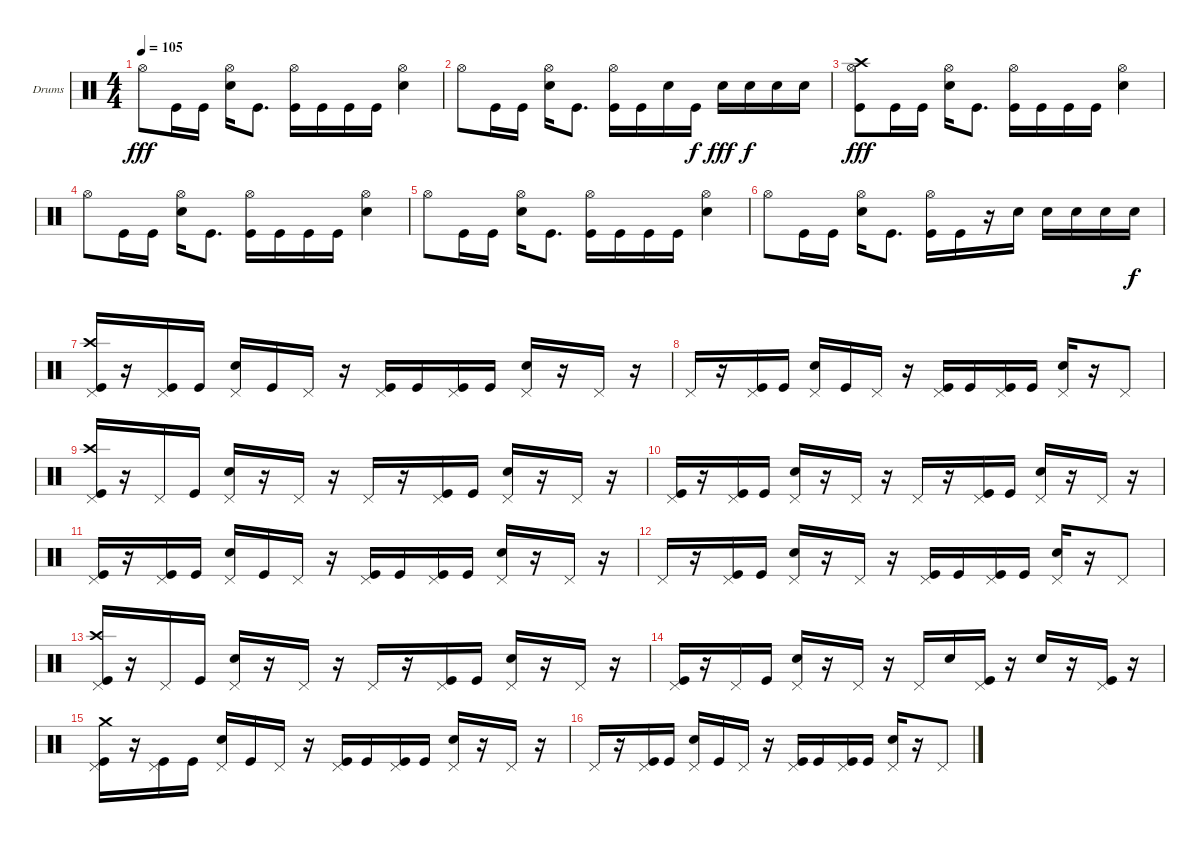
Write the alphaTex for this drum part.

\bracketExtendMode groupsimilarinstruments
\firstSystemTrackNameOrientation horizontal
\otherSystemsTrackNameOrientation horizontal
\track ("Drumkit (Christoph)" "Drums") {instrument percussion}
\staff {score}
\articulation defaults
\ts (4 4)
\tempo 105
\clef neutral
\ks c "Hi-Hat (open)".8{dy fff} "Kick (hit)".16 "Kick (hit)".16
("Hi-Hat (open)" "Snare (hit) 2").16 "Kick (hit)".8{d} ("Hi-Hat (open)" "Kick (hit)").16 "Kick (hit)".16 "Kick (hit)".16 "Kick (hit)".16 ("Hi-Hat (open)" "Snare (hit) 2").4 |
"Hi-Hat (open)".8 "Kick (hit)".16 "Kick (hit)".16 ("Hi-Hat (open)" "Snare (hit) 2").16 "Kick (hit)".8{d} ("Hi-Hat (open)" "Kick (hit)").16 "Kick (hit)".16 "Snare (hit) 2".16 "Kick (hit)".16{dy f} "Snare (hit) 2".16{dy fff} "Snare (hit) 2".16{dy f} "Snare (hit) 2".16 "Snare (hit) 2".16 |
("Crash high (hit)" "Kick (hit)" "Hi-Hat (open)").8{dy fff} "Kick (hit)".16 "Kick (hit)".16 ("Hi-Hat (open)" "Snare (hit) 2").16 "Kick (hit)".8{d} ("Hi-Hat (open)" "Kick (hit)").16 "Kick (hit)".16 "Kick (hit)".16 "Kick (hit)".16 ("Hi-Hat (open)" "Snare (hit) 2").4 |
"Hi-Hat (open)".8 "Kick (hit)".16 "Kick (hit)".16 ("Hi-Hat (open)" "Snare (hit) 2").16 "Kick (hit)".8{d} ("Hi-Hat (open)" "Kick (hit)").16 "Kick (hit)".16 "Kick (hit)".16 "Kick (hit)".16 ("Hi-Hat (open)" "Snare (hit) 2").4 |
"Hi-Hat (open)".8 "Kick (hit)".16 "Kick (hit)".16 ("Hi-Hat (open)" "Snare (hit) 2").16 "Kick (hit)".8{d} ("Hi-Hat (open)" "Kick (hit)").16 "Kick (hit)".16 "Kick (hit)".16 "Kick (hit)".16 ("Hi-Hat (open)" "Snare (hit) 2").4 |
"Hi-Hat (open)".8 "Kick (hit)".16 "Kick (hit)".16 ("Hi-Hat (open)" "Snare (hit) 2").16 "Kick (hit)".8{d} ("Hi-Hat (open)" "Kick (hit)").16 "Kick (hit)".16 r.16 "Snare (hit) 2".16 "Snare (hit) 2".16 "Snare (hit) 2".16 "Snare (hit) 2".16 "Snare (hit) 2".16{dy f} |
("Crash high (hit)" "Kick (hit)" "Pedal Hi-Hat (hit)").16 r.16 ("Pedal Hi-Hat (hit)" "Kick (hit)").16 "Kick (hit)".16 ("Pedal Hi-Hat (hit)" "Snare (hit) 2").16 "Kick (hit)".16 "Pedal Hi-Hat (hit)".16 r.16 ("Pedal Hi-Hat (hit)" "Kick (hit)").16 "Kick (hit)".16 ("Pedal Hi-Hat (hit)" "Kick (hit)").16 "Kick (hit)".16 ("Pedal Hi-Hat (hit)" "Snare (hit) 2").16 r.16 "Pedal Hi-Hat (hit)".16 r.16 |
"Pedal Hi-Hat (hit)".16 r.16 ("Pedal Hi-Hat (hit)" "Kick (hit)").16 "Kick (hit)".16 ("Pedal Hi-Hat (hit)" "Snare (hit) 2").16 "Kick (hit)".16 "Pedal Hi-Hat (hit)".16 r.16 ("Pedal Hi-Hat (hit)" "Kick (hit)").16 "Kick (hit)".16 ("Pedal Hi-Hat (hit)" "Kick (hit)").16 "Kick (hit)".16 ("Pedal Hi-Hat (hit)" "Snare (hit) 2").16 r.16 "Pedal Hi-Hat (hit)".8 |
("Pedal Hi-Hat (hit)" "Kick (hit)" "Crash high (hit)").16 r.16 "Pedal Hi-Hat (hit)".16 "Kick (hit)".16 ("Pedal Hi-Hat (hit)" "Snare (hit) 2").16 r.16 "Pedal Hi-Hat (hit)".16 r.16 "Pedal Hi-Hat (hit)".16 r.16 ("Pedal Hi-Hat (hit)" "Kick (hit)").16 "Kick (hit)".16 ("Pedal Hi-Hat (hit)" "Snare (hit) 2").16 r.16 "Pedal Hi-Hat (hit)".16 r.16 |
("Pedal Hi-Hat (hit)" "Kick (hit)").16 r.16 ("Pedal Hi-Hat (hit)" "Kick (hit)").16 "Kick (hit)".16 ("Pedal Hi-Hat (hit)" "Snare (hit) 2").16 r.16 "Pedal Hi-Hat (hit)".16 r.16 "Pedal Hi-Hat (hit)".16 r.16 ("Pedal Hi-Hat (hit)" "Kick (hit)").16 "Kick (hit)".16 ("Pedal Hi-Hat (hit)" "Snare (hit) 2").16 r.16 "Pedal Hi-Hat (hit)".16 r.16 |
("Kick (hit)" "Pedal Hi-Hat (hit)").16 r.16 ("Pedal Hi-Hat (hit)" "Kick (hit)").16 "Kick (hit)".16 ("Pedal Hi-Hat (hit)" "Snare (hit) 2").16 "Kick (hit)".16 "Pedal Hi-Hat (hit)".16 r.16 ("Pedal Hi-Hat (hit)" "Kick (hit)").16 "Kick (hit)".16 ("Pedal Hi-Hat (hit)" "Kick (hit)").16 "Kick (hit)".16 ("Pedal Hi-Hat (hit)" "Snare (hit) 2").16 r.16 "Pedal Hi-Hat (hit)".16 r.16 |
"Pedal Hi-Hat (hit)".16 r.16 ("Pedal Hi-Hat (hit)" "Kick (hit)").16 "Kick (hit)".16 ("Pedal Hi-Hat (hit)" "Snare (hit) 2").16 r.16 "Pedal Hi-Hat (hit)".16 r.16 ("Pedal Hi-Hat (hit)" "Kick (hit)").16 "Kick (hit)".16 ("Pedal Hi-Hat (hit)" "Kick (hit)").16 "Kick (hit)".16 ("Pedal Hi-Hat (hit)" "Snare (hit) 2").16 r.16 "Pedal Hi-Hat (hit)".8 |
("Pedal Hi-Hat (hit)" "Kick (hit)" "Crash high (hit)").16 r.16 "Pedal Hi-Hat (hit)".16 "Kick (hit)".16 ("Pedal Hi-Hat (hit)" "Snare (hit) 2").16 r.16 "Pedal Hi-Hat (hit)".16 r.16 "Pedal Hi-Hat (hit)".16 r.16 ("Pedal Hi-Hat (hit)" "Kick (hit)").16 "Kick (hit)".16 ("Pedal Hi-Hat (hit)" "Snare (hit) 2").16 r.16 "Pedal Hi-Hat (hit)".16 r.16 |
("Pedal Hi-Hat (hit)" "Kick (hit)").16 r.16 "Pedal Hi-Hat (hit)".16 "Kick (hit)".16 ("Pedal Hi-Hat (hit)" "Snare (hit) 2").16 r.16 "Pedal Hi-Hat (hit)".16 r.16 "Pedal Hi-Hat (hit)".16 "Snare (hit) 2".16 ("Pedal Hi-Hat (hit)" "Kick (hit)").16 r.16 "Snare (hit) 2".16 r.16 ("Pedal Hi-Hat (hit)" "Kick (hit)").16 r.16 |
("Kick (hit)" "Crash medium (hit)" "Pedal Hi-Hat (hit)").16 r.16 ("Pedal Hi-Hat (hit)" "Kick (hit)").16 "Kick (hit)".16 ("Pedal Hi-Hat (hit)" "Snare (hit) 2").16 "Kick (hit)".16 "Pedal Hi-Hat (hit)".16 r.16 ("Pedal Hi-Hat (hit)" "Kick (hit)").16 "Kick (hit)".16 ("Pedal Hi-Hat (hit)" "Kick (hit)").16 "Kick (hit)".16 ("Pedal Hi-Hat (hit)" "Snare (hit) 2").16 r.16 "Pedal Hi-Hat (hit)".16 r.16 |
"Pedal Hi-Hat (hit)".16 r.16 ("Pedal Hi-Hat (hit)" "Kick (hit)").16 "Kick (hit)".16 ("Pedal Hi-Hat (hit)" "Snare (hit) 2").16 "Kick (hit)".16 "Pedal Hi-Hat (hit)".16 r.16 ("Pedal Hi-Hat (hit)" "Kick (hit)").16 "Kick (hit)".16 ("Pedal Hi-Hat (hit)" "Kick (hit)").16 "Kick (hit)".16 ("Pedal Hi-Hat (hit)" "Snare (hit) 2").16 r.16 "Pedal Hi-Hat (hit)".8
